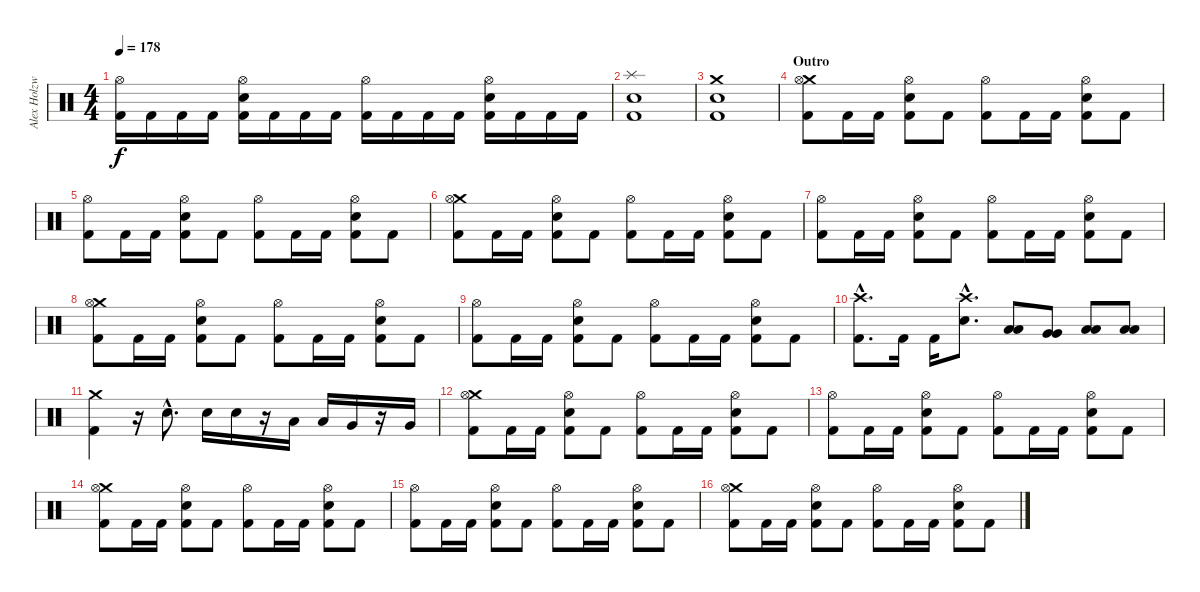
\track ("Alex Holzwarth" "Alex Holzw") {instrument percussion}
\staff {score}
\articulation defaults
\ts (4 4)
\tempo 178
\clef neutral
\ks c
("Hi-Hat (open)" "Kick (hit) 2").16{dy f} "Kick (hit) 2".16 "Kick (hit) 2".16 "Kick (hit) 2".16 ("Hi-Hat (open)" "Snare (hit) 2" "Kick (hit) 2").16 "Kick (hit) 2".16 "Kick (hit) 2".16 "Kick (hit) 2".16 ("Hi-Hat (open)" "Kick (hit) 2").16 "Kick (hit) 2".16 "Kick (hit) 2".16 "Kick (hit) 2".16 ("Hi-Hat (open)" "Snare (hit) 2" "Kick (hit) 2").16 "Kick (hit) 2".16 "Kick (hit) 2".16 "Kick (hit) 2".16 |
("Splash (hit)" "Snare (hit) 2" "Kick (hit) 2").1 |
("Crash medium (hit)" "Snare (hit) 2" "Kick (hit) 2").1 |
\section ("" "Outro")
("Crash medium (hit)" "Hi-Hat (open)" "Kick (hit) 2").8 "Kick (hit) 2".16 "Kick (hit) 2".16 ("Hi-Hat (open)" "Snare (hit) 2" "Kick (hit) 2").8 "Kick (hit) 2".8 ("Hi-Hat (open)" "Kick (hit) 2").8 "Kick (hit) 2".16 "Kick (hit) 2".16 ("Hi-Hat (open)" "Snare (hit) 2" "Kick (hit) 2").8 "Kick (hit) 2".8 |
("Hi-Hat (open)" "Kick (hit) 2").8 "Kick (hit) 2".16 "Kick (hit) 2".16 ("Hi-Hat (open)" "Snare (hit) 2" "Kick (hit) 2").8 "Kick (hit) 2".8 ("Hi-Hat (open)" "Kick (hit) 2").8 "Kick (hit) 2".16 "Kick (hit) 2".16 ("Hi-Hat (open)" "Snare (hit) 2" "Kick (hit) 2").8 "Kick (hit) 2".8 |
("Crash medium (hit)" "Hi-Hat (open)" "Kick (hit) 2").8 "Kick (hit) 2".16 "Kick (hit) 2".16 ("Hi-Hat (open)" "Snare (hit) 2" "Kick (hit) 2").8 "Kick (hit) 2".8 ("Hi-Hat (open)" "Kick (hit) 2").8 "Kick (hit) 2".16 "Kick (hit) 2".16 ("Hi-Hat (open)" "Snare (hit) 2" "Kick (hit) 2").8 "Kick (hit) 2".8 |
("Hi-Hat (open)" "Kick (hit) 2").8 "Kick (hit) 2".16 "Kick (hit) 2".16 ("Hi-Hat (open)" "Snare (hit) 2" "Kick (hit) 2").8 "Kick (hit) 2".8 ("Hi-Hat (open)" "Kick (hit) 2").8 "Kick (hit) 2".16 "Kick (hit) 2".16 ("Hi-Hat (open)" "Snare (hit) 2" "Kick (hit) 2").8 "Kick (hit) 2".8 |
("Crash medium (hit)" "Hi-Hat (open)" "Kick (hit) 2").8 "Kick (hit) 2".16 "Kick (hit) 2".16 ("Hi-Hat (open)" "Snare (hit) 2" "Kick (hit) 2").8 "Kick (hit) 2".8 ("Hi-Hat (open)" "Kick (hit) 2").8 "Kick (hit) 2".16 "Kick (hit) 2".16 ("Hi-Hat (open)" "Snare (hit) 2" "Kick (hit) 2").8 "Kick (hit) 2".8 |
("Hi-Hat (open)" "Kick (hit) 2").8 "Kick (hit) 2".16 "Kick (hit) 2".16 ("Hi-Hat (open)" "Snare (hit) 2" "Kick (hit) 2").8 "Kick (hit) 2".8 ("Hi-Hat (open)" "Kick (hit) 2").8 "Kick (hit) 2".16 "Kick (hit) 2".16 ("Hi-Hat (open)" "Snare (hit) 2" "Kick (hit) 2").8 "Kick (hit) 2".8 |
("Crash high (hit)"{hac} "Kick (hit) 2"{hac}).8{d} "Kick (hit) 2".16 "Kick (hit) 2".16 ("Crash high (hit)"{hac} "Snare (hit) 2"{hac}).8{d} ("Low Tom (hit)" "Low Tom (hit)").8 ("Very Low Tom (hit)" "Very Low Tom (hit)").8 ("Low Floor Tom (hit)" "Low Floor Tom (hit)").8 ("Low Floor Tom (hit)" "Low Floor Tom (hit)").8 |
("Crash medium (hit)" "Kick (hit) 2").4 r.16 "Snare (hit) 2"{hac}.8{d} "Snare (hit) 2".16 "Snare (hit) 2".16 r.16 "Low Tom (hit)".16 "Low Tom (hit)".16 "Very Low Tom (hit)".16 r.16 "Very Low Tom (hit)".16 |
("Crash medium (hit)" "Hi-Hat (open)" "Kick (hit) 2").8 "Kick (hit) 2".16 "Kick (hit) 2".16 ("Hi-Hat (open)" "Snare (hit) 2" "Kick (hit) 2").8 "Kick (hit) 2".8 ("Hi-Hat (open)" "Kick (hit) 2").8 "Kick (hit) 2".16 "Kick (hit) 2".16 ("Hi-Hat (open)" "Snare (hit) 2" "Kick (hit) 2").8 "Kick (hit) 2".8 |
("Hi-Hat (open)" "Kick (hit) 2").8 "Kick (hit) 2".16 "Kick (hit) 2".16 ("Hi-Hat (open)" "Snare (hit) 2" "Kick (hit) 2").8 "Kick (hit) 2".8 ("Hi-Hat (open)" "Kick (hit) 2").8 "Kick (hit) 2".16 "Kick (hit) 2".16 ("Hi-Hat (open)" "Snare (hit) 2" "Kick (hit) 2").8 "Kick (hit) 2".8 |
("Crash medium (hit)" "Hi-Hat (open)" "Kick (hit) 2").8 "Kick (hit) 2".16 "Kick (hit) 2".16 ("Hi-Hat (open)" "Snare (hit) 2" "Kick (hit) 2").8 "Kick (hit) 2".8 ("Hi-Hat (open)" "Kick (hit) 2").8 "Kick (hit) 2".16 "Kick (hit) 2".16 ("Hi-Hat (open)" "Snare (hit) 2" "Kick (hit) 2").8 "Kick (hit) 2".8 |
("Hi-Hat (open)" "Kick (hit) 2").8 "Kick (hit) 2".16 "Kick (hit) 2".16 ("Hi-Hat (open)" "Snare (hit) 2" "Kick (hit) 2").8 "Kick (hit) 2".8 ("Hi-Hat (open)" "Kick (hit) 2").8 "Kick (hit) 2".16 "Kick (hit) 2".16 ("Hi-Hat (open)" "Snare (hit) 2" "Kick (hit) 2").8 "Kick (hit) 2".8 |
("Crash medium (hit)" "Hi-Hat (open)" "Kick (hit) 2").8 "Kick (hit) 2".16 "Kick (hit) 2".16 ("Hi-Hat (open)" "Snare (hit) 2" "Kick (hit) 2").8 "Kick (hit) 2".8 ("Hi-Hat (open)" "Kick (hit) 2").8 "Kick (hit) 2".16 "Kick (hit) 2".16 ("Hi-Hat (open)" "Snare (hit) 2" "Kick (hit) 2").8 "Kick (hit) 2".8
